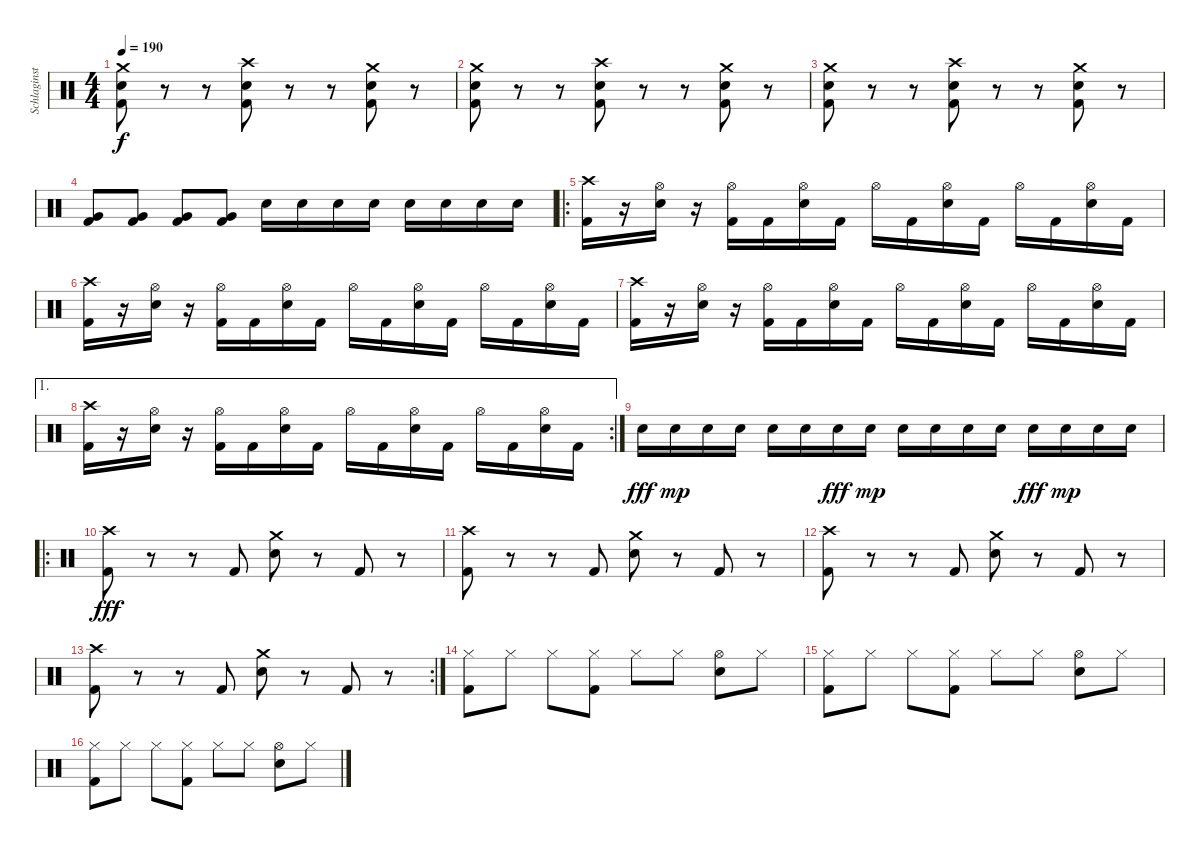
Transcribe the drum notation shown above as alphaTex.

\track ("Schlaginstrumente - Auswahl" "Schlaginst") {instrument percussion}
\staff {score}
\articulation defaults
\ts (4 4)
\tempo 190
\clef neutral
\ks c
("Crash medium (hit)" "Electric Snare (hit)" "Kick (hit) 2").8{dy f} r.8 r.8 ("Crash high (hit)" "Electric Snare (hit)" "Kick (hit) 2").8 r.8 r.8 ("Crash medium (hit)" "Electric Snare (hit)" "Kick (hit) 2").8 r.8 |
("Crash medium (hit)" "Electric Snare (hit)" "Kick (hit) 2").8 r.8 r.8 ("Crash high (hit)" "Electric Snare (hit)" "Kick (hit) 2").8 r.8 r.8 ("Crash medium (hit)" "Electric Snare (hit)" "Kick (hit) 2").8 r.8 |
("Crash medium (hit)" "Electric Snare (hit)" "Kick (hit) 2").8 r.8 r.8 ("Crash high (hit)" "Electric Snare (hit)" "Kick (hit) 2").8 r.8 r.8 ("Crash medium (hit)" "Electric Snare (hit)" "Kick (hit) 2").8 r.8 |
("Very Low Tom (hit)" "Kick (hit) 2").8 ("Very Low Tom (hit)" "Kick (hit) 2").8 ("Very Low Tom (hit)" "Kick (hit) 2").8 ("Very Low Tom (hit)" "Kick (hit) 2").8 "Electric Snare (hit)".16 "Electric Snare (hit)".16 "Electric Snare (hit)".16 "Electric Snare (hit)".16 "Electric Snare (hit)".16 "Electric Snare (hit)".16 "Electric Snare (hit)".16 "Electric Snare (hit)".16 |
\ro
("Crash high (hit)" "Kick (hit) 2").16 r.16 ("Hi-Hat (open)" "Electric Snare (hit)").16 r.16 ("Hi-Hat (open)" "Kick (hit) 2").16 "Kick (hit) 2".16 ("Hi-Hat (open)" "Electric Snare (hit)").16 "Kick (hit) 2".16 "Hi-Hat (open)".16 "Kick (hit) 2".16 ("Hi-Hat (open)" "Electric Snare (hit)").16 "Kick (hit) 2".16 "Hi-Hat (open)".16 "Kick (hit) 2".16 ("Hi-Hat (open)" "Electric Snare (hit)").16 "Kick (hit) 2".16 |
("Crash high (hit)" "Kick (hit) 2").16 r.16 ("Hi-Hat (open)" "Electric Snare (hit)").16 r.16 ("Hi-Hat (open)" "Kick (hit) 2").16 "Kick (hit) 2".16 ("Hi-Hat (open)" "Electric Snare (hit)").16 "Kick (hit) 2".16 "Hi-Hat (open)".16 "Kick (hit) 2".16 ("Hi-Hat (open)" "Electric Snare (hit)").16 "Kick (hit) 2".16 "Hi-Hat (open)".16 "Kick (hit) 2".16 ("Hi-Hat (open)" "Electric Snare (hit)").16 "Kick (hit) 2".16 |
("Crash high (hit)" "Kick (hit) 2").16 r.16 ("Hi-Hat (open)" "Electric Snare (hit)").16 r.16 ("Hi-Hat (open)" "Kick (hit) 2").16 "Kick (hit) 2".16 ("Hi-Hat (open)" "Electric Snare (hit)").16 "Kick (hit) 2".16 "Hi-Hat (open)".16 "Kick (hit) 2".16 ("Hi-Hat (open)" "Electric Snare (hit)").16 "Kick (hit) 2".16 "Hi-Hat (open)".16 "Kick (hit) 2".16 ("Hi-Hat (open)" "Electric Snare (hit)").16 "Kick (hit) 2".16 |
\ae 1
\rc 2
("Crash high (hit)" "Kick (hit) 2").16 r.16 ("Hi-Hat (open)" "Electric Snare (hit)").16 r.16 ("Hi-Hat (open)" "Kick (hit) 2").16 "Kick (hit) 2".16 ("Hi-Hat (open)" "Electric Snare (hit)").16 "Kick (hit) 2".16 "Hi-Hat (open)".16 "Kick (hit) 2".16 ("Hi-Hat (open)" "Electric Snare (hit)").16 "Kick (hit) 2".16 "Hi-Hat (open)".16 "Kick (hit) 2".16 ("Hi-Hat (open)" "Electric Snare (hit)").16 "Kick (hit) 2".16 |
"Electric Snare (hit)".16{dy fff} "Electric Snare (hit)".16{dy mp} "Electric Snare (hit)".16 "Electric Snare (hit)".16 "Electric Snare (hit)".16 "Electric Snare (hit)".16 "Electric Snare (hit)".16{dy fff} "Electric Snare (hit)".16{dy mp} "Electric Snare (hit)".16 "Electric Snare (hit)".16 "Electric Snare (hit)".16 "Electric Snare (hit)".16 "Electric Snare (hit)".16{dy fff} "Electric Snare (hit)".16{dy mp} "Electric Snare (hit)".16 "Electric Snare (hit)".16 |
\ro
("Crash high (hit)" "Kick (hit) 2").8{dy fff} r.8 r.8 "Kick (hit) 2".8 ("Crash medium (hit)" "Electric Snare (hit)").8 r.8 "Kick (hit) 2".8 r.8 |
("Crash high (hit)" "Kick (hit) 2").8 r.8 r.8 "Kick (hit) 2".8 ("Crash medium (hit)" "Electric Snare (hit)").8 r.8 "Kick (hit) 2".8 r.8 |
("Crash high (hit)" "Kick (hit) 2").8 r.8 r.8 "Kick (hit) 2".8 ("Crash medium (hit)" "Electric Snare (hit)").8 r.8 "Kick (hit) 2".8 r.8 |
\rc 2
("Crash high (hit)" "Kick (hit) 2").8 r.8 r.8 "Kick (hit) 2".8 ("Crash medium (hit)" "Electric Snare (hit)").8 r.8 "Kick (hit) 2".8 r.8 |
("Hi-Hat (closed)" "Kick (hit) 2").8 "Hi-Hat (closed)".8 "Hi-Hat (closed)".8 ("Hi-Hat (closed)" "Kick (hit) 2").8 "Hi-Hat (closed)".8 "Hi-Hat (closed)".8 ("Hi-Hat (open)" "Electric Snare (hit)").8 "Hi-Hat (closed)".8 |
("Hi-Hat (closed)" "Kick (hit) 2").8 "Hi-Hat (closed)".8 "Hi-Hat (closed)".8 ("Hi-Hat (closed)" "Kick (hit) 2").8 "Hi-Hat (closed)".8 "Hi-Hat (closed)".8 ("Hi-Hat (open)" "Electric Snare (hit)").8 "Hi-Hat (closed)".8 |
("Hi-Hat (closed)" "Kick (hit) 2").8 "Hi-Hat (closed)".8 "Hi-Hat (closed)".8 ("Hi-Hat (closed)" "Kick (hit) 2").8 "Hi-Hat (closed)".8 "Hi-Hat (closed)".8 ("Hi-Hat (open)" "Electric Snare (hit)").8 "Hi-Hat (closed)".8
